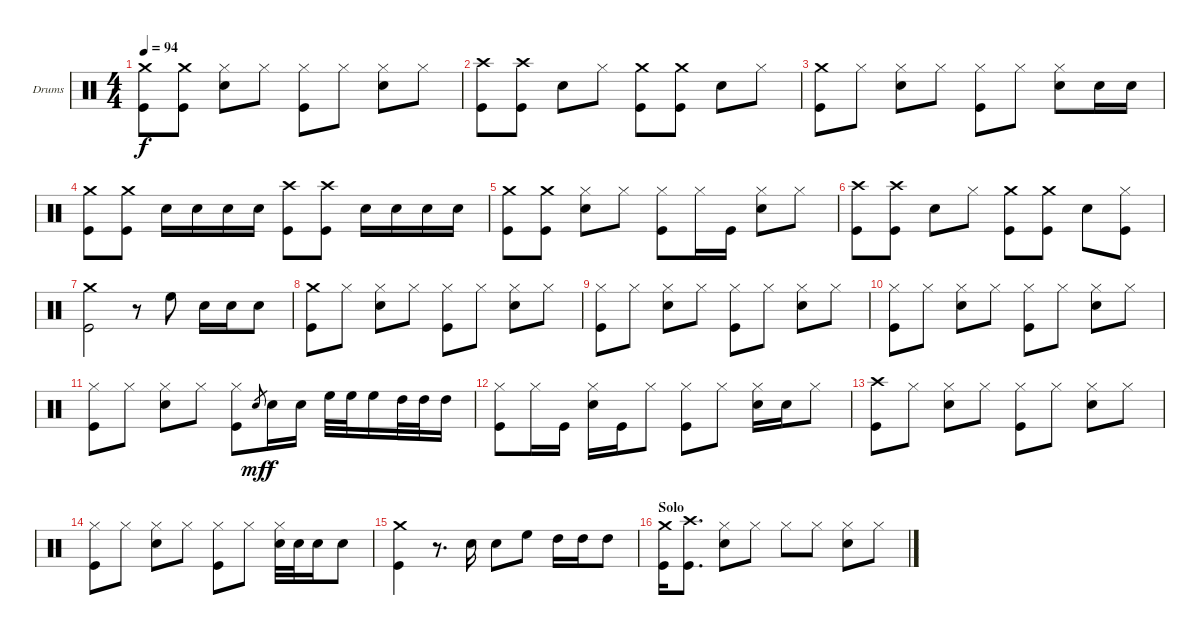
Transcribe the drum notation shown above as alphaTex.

\bracketExtendMode groupsimilarinstruments
\firstSystemTrackNameOrientation horizontal
\otherSystemsTrackNameOrientation horizontal
\track ("Drumkit" "Drums") {instrument percussion}
\staff {score}
\articulation defaults
\ts (4 4)
\tempo 94
\clef neutral
\ks c
("Crash medium (hit)" "Kick (hit)").8{dy f} ("Crash medium (hit)" "Kick (hit)").8 ("Hi-Hat (closed)" "Snare (hit) 2").8 "Hi-Hat (closed)".8 ("Hi-Hat (closed)" "Kick (hit)").8 "Hi-Hat (closed)".8 ("Hi-Hat (closed)" "Snare (hit) 2").8 "Hi-Hat (closed)".8 |
("Crash high (hit)" "Kick (hit)").8 ("Crash high (hit)" "Kick (hit)").8 "Snare (hit) 2".8 "Hi-Hat (closed)".8 ("Crash medium (hit)" "Kick (hit)").8 ("Crash medium (hit)" "Kick (hit)").8 "Snare (hit) 2".8 "Hi-Hat (closed)".8 |
("Crash medium (hit)" "Kick (hit)").8 "Hi-Hat (closed)".8 ("Hi-Hat (closed)" "Snare (hit) 2").8 "Hi-Hat (closed)".8 ("Hi-Hat (closed)" "Kick (hit)").8 "Hi-Hat (closed)".8 ("Hi-Hat (closed)" "Snare (hit) 2").8 "Snare (hit) 2".16 "Snare (hit) 2".16 |
("Crash medium (hit)" "Kick (hit)").8 ("Crash medium (hit)" "Kick (hit)").8 "Snare (hit) 2".16 "Snare (hit) 2".16 "Snare (hit) 2".16 "Snare (hit) 2".16 ("Crash high (hit)" "Kick (hit)").8 ("Crash high (hit)" "Kick (hit)").8 "Snare (hit) 2".16 "Snare (hit) 2".16 "Snare (hit) 2".16 "Snare (hit) 2".16 |
("Crash medium (hit)" "Kick (hit)").8 ("Crash medium (hit)" "Kick (hit)").8 ("Hi-Hat (closed)" "Snare (hit) 2").8 "Hi-Hat (closed)".8 ("Hi-Hat (closed)" "Kick (hit)").8 "Hi-Hat (closed)".16 "Kick (hit)".16 ("Hi-Hat (closed)" "Snare (hit) 2").8 "Hi-Hat (closed)".8 |
("Crash high (hit)" "Kick (hit)").8 ("Crash high (hit)" "Kick (hit)").8 "Snare (hit) 2".8 "Hi-Hat (closed)".8 ("Crash medium (hit)" "Kick (hit)").8 ("Crash medium (hit)" "Kick (hit)").8 "Snare (hit) 2".8 ("Hi-Hat (closed)" "Kick (hit)").8 |
("Crash medium (hit)" "Kick (hit)").2 r.8 "High Floor Tom (hit)".8 "Snare (hit) 2".16 "Snare (hit) 2".16 "Snare (hit) 2".8 |
("Crash medium (hit)" "Kick (hit)").8 "Hi-Hat (closed)".8 ("Hi-Hat (closed)" "Snare (hit) 2").8 "Hi-Hat (closed)".8 ("Hi-Hat (closed)" "Kick (hit)").8 "Hi-Hat (closed)".8 ("Hi-Hat (closed)" "Snare (hit) 2").8 "Hi-Hat (closed)".8 |
("Hi-Hat (closed)" "Kick (hit)").8 "Hi-Hat (closed)".8 ("Hi-Hat (closed)" "Snare (hit) 2").8 "Hi-Hat (closed)".8 ("Hi-Hat (closed)" "Kick (hit)").8 "Hi-Hat (closed)".8 ("Hi-Hat (closed)" "Snare (hit) 2").8 "Hi-Hat (closed)".8 |
("Hi-Hat (closed)" "Kick (hit)").8 "Hi-Hat (closed)".8 ("Hi-Hat (closed)" "Snare (hit) 2").8 "Hi-Hat (closed)".8 ("Hi-Hat (closed)" "Kick (hit)").8 "Hi-Hat (closed)".8 ("Hi-Hat (closed)" "Snare (hit) 2").8 "Hi-Hat (closed)".8 |
("Hi-Hat (closed)" "Kick (hit)").8 "Hi-Hat (closed)".8 ("Hi-Hat (closed)" "Snare (hit) 2").8 "Hi-Hat (closed)".8 ("Hi-Hat (closed)" "Kick (hit)").8 "Snare (hit) 2".8{gr dy mf} "Snare (hit) 2".16{dy f} "Snare (hit) 2".16 "High Floor Tom (hit)".32 "High Floor Tom (hit)".32 "High Floor Tom (hit)".16 "High Tom (hit)".32 "High Tom (hit)".32 "High Tom (hit)".16 |
("Hi-Hat (closed)" "Kick (hit)").8 "Hi-Hat (closed)".16 "Kick (hit)".16 ("Hi-Hat (closed)" "Snare (hit) 2").16 "Kick (hit)".16 "Hi-Hat (closed)".8 ("Hi-Hat (closed)" "Kick (hit)").8 "Hi-Hat (closed)".8 ("Hi-Hat (closed)" "Snare (hit) 2").16 "Snare (hit) 2".16 "Hi-Hat (closed)".8 |
("Crash high (hit)" "Kick (hit)").8 "Hi-Hat (closed)".8 ("Hi-Hat (closed)" "Snare (hit) 2").8 "Hi-Hat (closed)".8 ("Hi-Hat (closed)" "Kick (hit)").8 "Hi-Hat (closed)".8 ("Hi-Hat (closed)" "Snare (hit) 2").8 "Hi-Hat (closed)".8 |
("Hi-Hat (closed)" "Kick (hit)").8 "Hi-Hat (closed)".8 ("Hi-Hat (closed)" "Snare (hit) 2").8 "Hi-Hat (closed)".8 ("Hi-Hat (closed)" "Kick (hit)").8 "Hi-Hat (closed)".8 ("Hi-Hat (closed)" "Snare (hit) 2").32 "Snare (hit) 2".32 "Snare (hit) 2".16 "Snare (hit) 2".8 |
("Crash medium (hit)" "Kick (hit)").4 r.8{d} "Snare (hit) 2".16 "Snare (hit) 2".8 "High Floor Tom (hit)".8 "High Tom (hit)".16 "High Tom (hit)".16 "High Tom (hit)".8 |
\section ("" "Solo")
("Crash medium (hit)" "Kick (hit)").16 ("Crash high (hit)" "Kick (hit)").8{d} ("Hi-Hat (closed)" "Snare (hit) 2").8 "Hi-Hat (closed)".8 "Hi-Hat (closed)".8 "Hi-Hat (closed)".8 ("Hi-Hat (closed)" "Snare (hit) 2").8 "Hi-Hat (closed)".8
